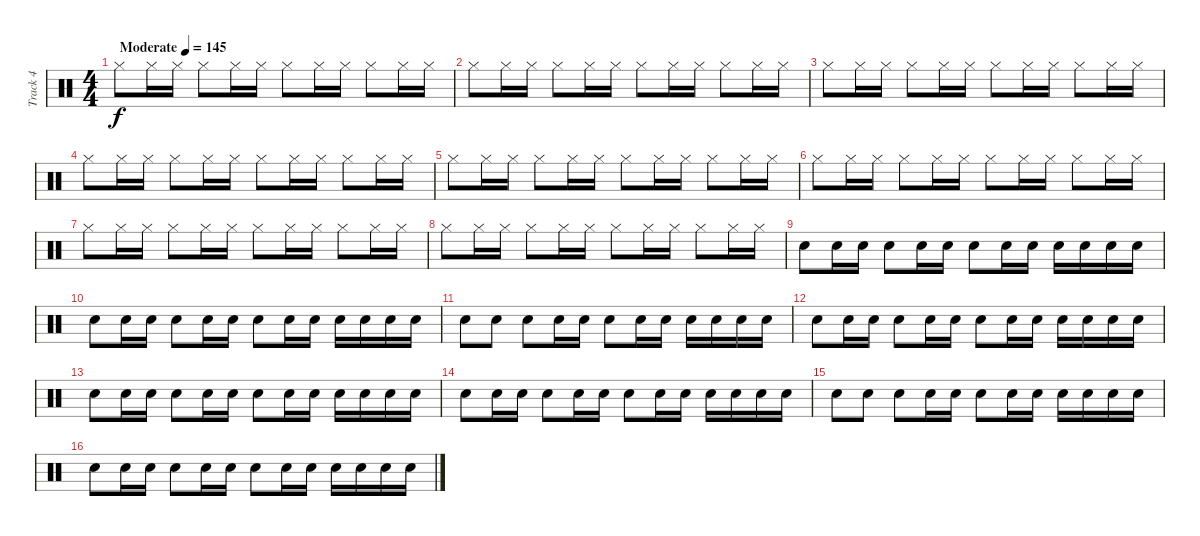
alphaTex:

\track ("Track 4" "Track 4") {instrument percussion}
\staff {score}
\articulation defaults
\ts (4 4)
\tempo (145 "Moderate")
\clef neutral
\ks c "Hi-Hat (closed)".8{dy f} "Hi-Hat (closed)".16 "Hi-Hat (closed)".16 "Hi-Hat (closed)".8 "Hi-Hat (closed)".16 "Hi-Hat (closed)".16 "Hi-Hat (closed)".8 "Hi-Hat (closed)".16 "Hi-Hat (closed)".16 "Hi-Hat (closed)".8 "Hi-Hat (closed)".16 "Hi-Hat (closed)".16
|
"Hi-Hat (closed)".8 "Hi-Hat (closed)".16 "Hi-Hat (closed)".16 "Hi-Hat (closed)".8 "Hi-Hat (closed)".16 "Hi-Hat (closed)".16 "Hi-Hat (closed)".8 "Hi-Hat (closed)".16 "Hi-Hat (closed)".16 "Hi-Hat (closed)".8 "Hi-Hat (closed)".16 "Hi-Hat (closed)".16 |
"Hi-Hat (closed)".8 "Hi-Hat (closed)".16 "Hi-Hat (closed)".16 "Hi-Hat (closed)".8 "Hi-Hat (closed)".16 "Hi-Hat (closed)".16 "Hi-Hat (closed)".8 "Hi-Hat (closed)".16 "Hi-Hat (closed)".16 "Hi-Hat (closed)".8 "Hi-Hat (closed)".16 "Hi-Hat (closed)".16 |
"Hi-Hat (closed)".8 "Hi-Hat (closed)".16 "Hi-Hat (closed)".16 "Hi-Hat (closed)".8 "Hi-Hat (closed)".16 "Hi-Hat (closed)".16 "Hi-Hat (closed)".8 "Hi-Hat (closed)".16 "Hi-Hat (closed)".16 "Hi-Hat (closed)".8 "Hi-Hat (closed)".16 "Hi-Hat (closed)".16 |
"Hi-Hat (closed)".8 "Hi-Hat (closed)".16 "Hi-Hat (closed)".16 "Hi-Hat (closed)".8 "Hi-Hat (closed)".16 "Hi-Hat (closed)".16 "Hi-Hat (closed)".8 "Hi-Hat (closed)".16 "Hi-Hat (closed)".16 "Hi-Hat (closed)".8 "Hi-Hat (closed)".16 "Hi-Hat (closed)".16 |
"Hi-Hat (closed)".8 "Hi-Hat (closed)".16 "Hi-Hat (closed)".16 "Hi-Hat (closed)".8 "Hi-Hat (closed)".16 "Hi-Hat (closed)".16 "Hi-Hat (closed)".8 "Hi-Hat (closed)".16 "Hi-Hat (closed)".16 "Hi-Hat (closed)".8 "Hi-Hat (closed)".16 "Hi-Hat (closed)".16 |
"Hi-Hat (closed)".8 "Hi-Hat (closed)".16 "Hi-Hat (closed)".16 "Hi-Hat (closed)".8 "Hi-Hat (closed)".16 "Hi-Hat (closed)".16 "Hi-Hat (closed)".8 "Hi-Hat (closed)".16 "Hi-Hat (closed)".16 "Hi-Hat (closed)".8 "Hi-Hat (closed)".16 "Hi-Hat (closed)".16 |
"Hi-Hat (closed)".8 "Hi-Hat (closed)".16 "Hi-Hat (closed)".16 "Hi-Hat (closed)".8 "Hi-Hat (closed)".16 "Hi-Hat (closed)".16 "Hi-Hat (closed)".8 "Hi-Hat (closed)".16 "Hi-Hat (closed)".16 "Hi-Hat (closed)".8 "Hi-Hat (closed)".16 "Hi-Hat (closed)".16 |
"Snare (hit) 2".8 "Snare (hit) 2".16 "Snare (hit) 2".16 "Snare (hit) 2".8 "Snare (hit) 2".16 "Snare (hit) 2".16 "Snare (hit) 2".8 "Snare (hit) 2".16 "Snare (hit) 2".16 "Snare (hit) 2".16 "Snare (hit) 2".16 "Snare (hit) 2".16 "Snare (hit) 2".16 |
"Snare (hit) 2".8 "Snare (hit) 2".16 "Snare (hit) 2".16 "Snare (hit) 2".8 "Snare (hit) 2".16 "Snare (hit) 2".16 "Snare (hit) 2".8 "Snare (hit) 2".16 "Snare (hit) 2".16 "Snare (hit) 2".16 "Snare (hit) 2".16 "Snare (hit) 2".16 "Snare (hit) 2".16 |
"Snare (hit) 2".8 "Snare (hit) 2".8 "Snare (hit) 2".8 "Snare (hit) 2".16 "Snare (hit) 2".16 "Snare (hit) 2".8 "Snare (hit) 2".16 "Snare (hit) 2".16 "Snare (hit) 2".16 "Snare (hit) 2".16 "Snare (hit) 2".16 "Snare (hit) 2".16 |
"Snare (hit) 2".8 "Snare (hit) 2".16 "Snare (hit) 2".16 "Snare (hit) 2".8 "Snare (hit) 2".16 "Snare (hit) 2".16 "Snare (hit) 2".8 "Snare (hit) 2".16 "Snare (hit) 2".16 "Snare (hit) 2".16 "Snare (hit) 2".16 "Snare (hit) 2".16 "Snare (hit) 2".16 |
"Snare (hit) 2".8 "Snare (hit) 2".16 "Snare (hit) 2".16 "Snare (hit) 2".8 "Snare (hit) 2".16 "Snare (hit) 2".16 "Snare (hit) 2".8 "Snare (hit) 2".16 "Snare (hit) 2".16 "Snare (hit) 2".16 "Snare (hit) 2".16 "Snare (hit) 2".16 "Snare (hit) 2".16 |
"Snare (hit) 2".8 "Snare (hit) 2".16 "Snare (hit) 2".16 "Snare (hit) 2".8 "Snare (hit) 2".16 "Snare (hit) 2".16 "Snare (hit) 2".8 "Snare (hit) 2".16 "Snare (hit) 2".16 "Snare (hit) 2".16 "Snare (hit) 2".16 "Snare (hit) 2".16 "Snare (hit) 2".16 |
"Snare (hit) 2".8 "Snare (hit) 2".8 "Snare (hit) 2".8 "Snare (hit) 2".16 "Snare (hit) 2".16 "Snare (hit) 2".8 "Snare (hit) 2".16 "Snare (hit) 2".16 "Snare (hit) 2".16 "Snare (hit) 2".16 "Snare (hit) 2".16 "Snare (hit) 2".16 |
"Snare (hit) 2".8 "Snare (hit) 2".16 "Snare (hit) 2".16 "Snare (hit) 2".8 "Snare (hit) 2".16 "Snare (hit) 2".16 "Snare (hit) 2".8 "Snare (hit) 2".16 "Snare (hit) 2".16 "Snare (hit) 2".16 "Snare (hit) 2".16 "Snare (hit) 2".16 "Snare (hit) 2".16
